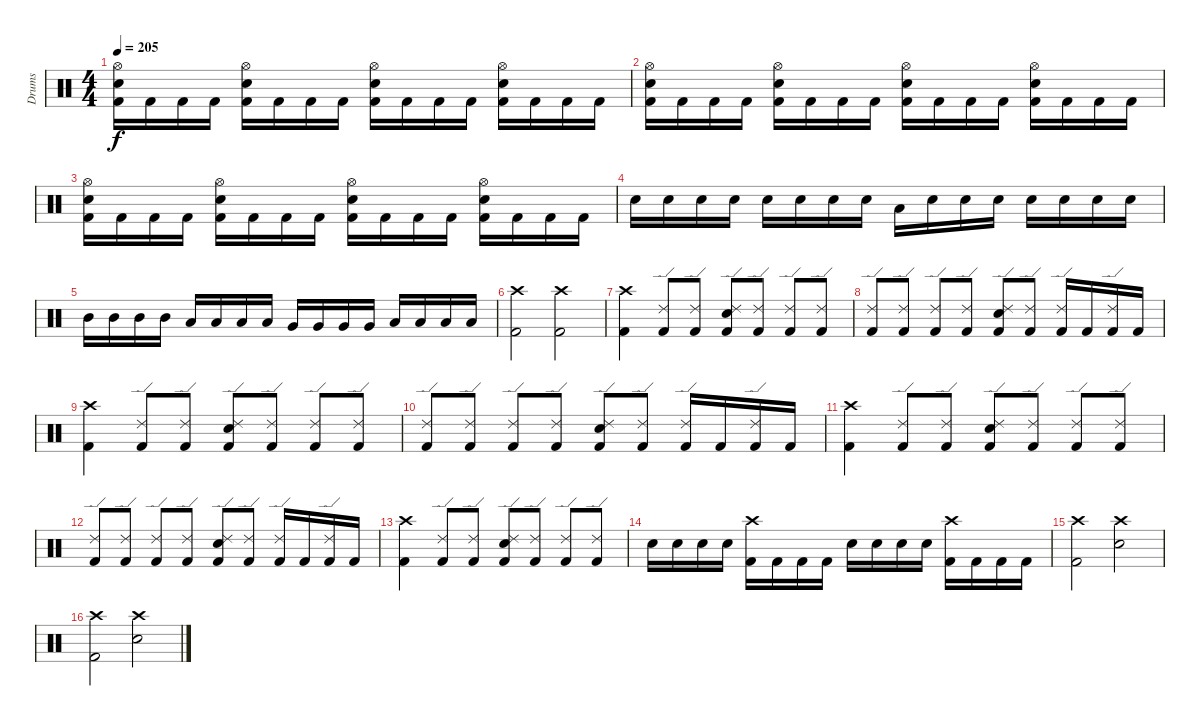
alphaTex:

\track ("Drums" "Drums") {instrument percussion bank 169}
\staff {score}
\articulation defaults
\ts (4 4)
\tempo 205
\clef neutral
\ks c
("Hi-Hat (open)" "Snare (hit) 2" "Kick (hit) 2").16{dy f} "Kick (hit) 2".16 "Kick (hit) 2".16 "Kick (hit) 2".16 ("Hi-Hat (open)" "Snare (hit) 2" "Kick (hit) 2").16 "Kick (hit) 2".16 "Kick (hit) 2".16 "Kick (hit) 2".16 ("Hi-Hat (open)" "Snare (hit) 2" "Kick (hit) 2").16 "Kick (hit) 2".16 "Kick (hit) 2".16 "Kick (hit) 2".16 ("Hi-Hat (open)" "Snare (hit) 2" "Kick (hit) 2").16 "Kick (hit) 2".16 "Kick (hit) 2".16 "Kick (hit) 2".16 |
("Hi-Hat (open)" "Snare (hit) 2" "Kick (hit) 2").16 "Kick (hit) 2".16 "Kick (hit) 2".16 "Kick (hit) 2".16 ("Hi-Hat (open)" "Snare (hit) 2" "Kick (hit) 2").16 "Kick (hit) 2".16 "Kick (hit) 2".16 "Kick (hit) 2".16 ("Hi-Hat (open)" "Snare (hit) 2" "Kick (hit) 2").16 "Kick (hit) 2".16 "Kick (hit) 2".16 "Kick (hit) 2".16 ("Hi-Hat (open)" "Snare (hit) 2" "Kick (hit) 2").16 "Kick (hit) 2".16 "Kick (hit) 2".16 "Kick (hit) 2".16 |
("Hi-Hat (open)" "Snare (hit) 2" "Kick (hit) 2").16 "Kick (hit) 2".16 "Kick (hit) 2".16 "Kick (hit) 2".16 ("Hi-Hat (open)" "Snare (hit) 2" "Kick (hit) 2").16 "Kick (hit) 2".16 "Kick (hit) 2".16 "Kick (hit) 2".16 ("Hi-Hat (open)" "Snare (hit) 2" "Kick (hit) 2").16 "Kick (hit) 2".16 "Kick (hit) 2".16 "Kick (hit) 2".16 ("Hi-Hat (open)" "Snare (hit) 2" "Kick (hit) 2").16 "Kick (hit) 2".16 "Kick (hit) 2".16 "Kick (hit) 2".16 |
"Snare (hit) 2".16 "Snare (hit) 2".16 "Snare (hit) 2".16 "Snare (hit) 2".16 "Snare (hit) 2".16 "Snare (hit) 2".16 "Snare (hit) 2".16 "Snare (hit) 2".16 "Low Tom (hit)".16 "Snare (hit) 2".16 "Snare (hit) 2".16 "Snare (hit) 2".16 "Snare (hit) 2".16 "Snare (hit) 2".16 "Snare (hit) 2".16 "Snare (hit) 2".16 |
"Mid Tom (hit)".16 "Mid Tom (hit)".16 "Mid Tom (hit)".16 "Mid Tom (hit)".16 "Low Tom (hit)".16 "Low Tom (hit)".16 "Low Tom (hit)".16 "Low Tom (hit)".16 "Very Low Tom (hit)".16 "Very Low Tom (hit)".16 "Very Low Tom (hit)".16 "Very Low Tom (hit)".16 "Low Floor Tom (hit)".16 "Low Floor Tom (hit)".16 "Low Floor Tom (hit)".16 "Low Floor Tom (hit)".16 |
("Crash high (hit)" "Kick (hit) 2").2 ("Crash high (hit)" "Kick (hit) 2").2 |
("Crash high (hit)" "Kick (hit) 2").4 ("Ride (edge) 2" "Kick (hit) 2").8 ("Ride (edge) 2" "Kick (hit) 2").8 ("Ride (edge) 2" "Snare (hit) 2" "Kick (hit) 2").8 ("Ride (edge) 2" "Kick (hit) 2").8 ("Ride (edge) 2" "Kick (hit) 2").8 ("Ride (edge) 2" "Kick (hit) 2").8 |
("Ride (edge) 2" "Kick (hit) 2").8 ("Ride (edge) 2" "Kick (hit) 2").8 ("Ride (edge) 2" "Kick (hit) 2").8 ("Ride (edge) 2" "Kick (hit) 2").8 ("Ride (edge) 2" "Snare (hit) 2" "Kick (hit) 2").8 ("Ride (edge) 2" "Kick (hit) 2").8 ("Ride (edge) 2" "Kick (hit) 2").16 "Kick (hit) 2".16 ("Ride (edge) 2" "Kick (hit) 2").16 "Kick (hit) 2".16 |
("Crash high (hit)" "Kick (hit) 2").4 ("Ride (edge) 2" "Kick (hit) 2").8 ("Ride (edge) 2" "Kick (hit) 2").8 ("Ride (edge) 2" "Snare (hit) 2" "Kick (hit) 2").8 ("Ride (edge) 2" "Kick (hit) 2").8 ("Ride (edge) 2" "Kick (hit) 2").8 ("Ride (edge) 2" "Kick (hit) 2").8 |
("Ride (edge) 2" "Kick (hit) 2").8 ("Ride (edge) 2" "Kick (hit) 2").8 ("Ride (edge) 2" "Kick (hit) 2").8 ("Ride (edge) 2" "Kick (hit) 2").8 ("Ride (edge) 2" "Snare (hit) 2" "Kick (hit) 2").8 ("Ride (edge) 2" "Kick (hit) 2").8 ("Ride (edge) 2" "Kick (hit) 2").16 "Kick (hit) 2".16 ("Ride (edge) 2" "Kick (hit) 2").16 "Kick (hit) 2".16 |
("Crash high (hit)" "Kick (hit) 2").4 ("Ride (edge) 2" "Kick (hit) 2").8 ("Ride (edge) 2" "Kick (hit) 2").8 ("Ride (edge) 2" "Snare (hit) 2" "Kick (hit) 2").8 ("Ride (edge) 2" "Kick (hit) 2").8 ("Ride (edge) 2" "Kick (hit) 2").8 ("Ride (edge) 2" "Kick (hit) 2").8 |
("Ride (edge) 2" "Kick (hit) 2").8 ("Ride (edge) 2" "Kick (hit) 2").8 ("Ride (edge) 2" "Kick (hit) 2").8 ("Ride (edge) 2" "Kick (hit) 2").8 ("Ride (edge) 2" "Snare (hit) 2" "Kick (hit) 2").8 ("Ride (edge) 2" "Kick (hit) 2").8 ("Ride (edge) 2" "Kick (hit) 2").16 "Kick (hit) 2".16 ("Ride (edge) 2" "Kick (hit) 2").16 "Kick (hit) 2".16 |
("Crash high (hit)" "Kick (hit) 2").4 ("Ride (edge) 2" "Kick (hit) 2").8 ("Ride (edge) 2" "Kick (hit) 2").8 ("Ride (edge) 2" "Snare (hit) 2" "Kick (hit) 2").8 ("Ride (edge) 2" "Kick (hit) 2").8 ("Ride (edge) 2" "Kick (hit) 2").8 ("Ride (edge) 2" "Kick (hit) 2").8 |
"Snare (hit) 2".16 "Snare (hit) 2".16 "Snare (hit) 2".16 "Snare (hit) 2".16 ("Crash high (hit)" "Kick (hit) 2").16 "Kick (hit) 2".16 "Kick (hit) 2".16 "Kick (hit) 2".16 "Snare (hit) 2".16 "Snare (hit) 2".16 "Snare (hit) 2".16 "Snare (hit) 2".16 ("Crash high (hit)" "Kick (hit) 2").16 "Kick (hit) 2".16 "Kick (hit) 2".16 "Kick (hit) 2".16 |
("Crash high (hit)" "Kick (hit) 2").2 ("Crash high (hit)" "Snare (hit) 2").2 |
("Crash high (hit)" "Kick (hit) 2").2 ("Crash high (hit)" "Snare (hit) 2").2
